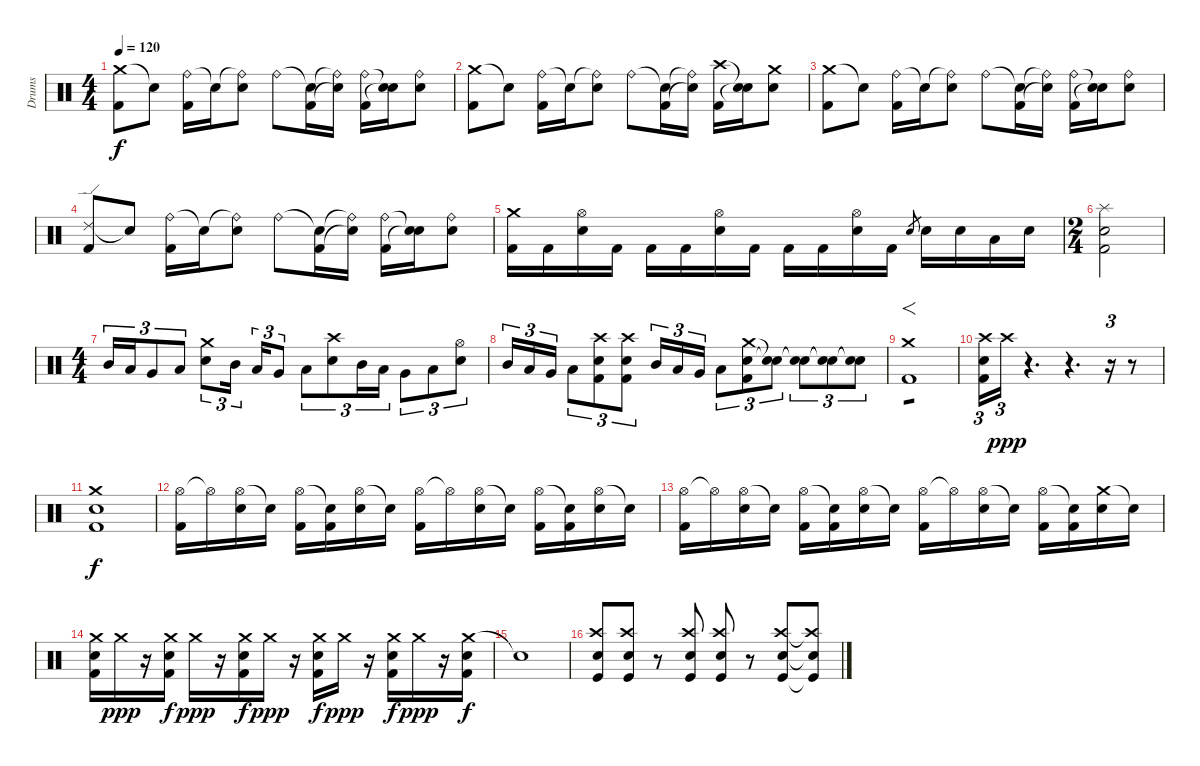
\track ("Drums" "Drums") {instrument percussion}
\staff {score}
\articulation defaults
\ts (4 4)
\tempo 120
\clef neutral
\ks c
("Crash medium (hit)" "Kick (hit) 2").8{dy f} "Snare (hit)"{t}.8 ("Ride (bell)" "Kick (hit) 2").16 "Snare (hit)"{t}.16 ("Ride (bell)"{t} "Snare (hit) 2").8 "Ride (bell)".8 ("Snare (hit)"{t} "Kick (hit) 2").16 ("Ride (bell)"{t} "Snare (hit)"{t}).16 ("Ride (bell)" "Kick (hit) 2").16 ("Snare (hit)"{t} "Snare (hit)"{t}).16 ("Ride (bell)" "Snare (hit) 2").8 |
("Crash medium (hit)" "Kick (hit) 2").8 "Snare (hit)"{t}.8 ("Ride (bell)" "Kick (hit) 2").16 "Snare (hit)"{t}.16 ("Ride (bell)"{t} "Snare (hit) 2").8 "Ride (bell)".8 ("Snare (hit)"{t} "Kick (hit) 2").16 ("Ride (bell)"{t} "Snare (hit)"{t}).16 ("Crash high (hit)" "Kick (hit) 2").16 ("Snare (hit)"{t} "Snare (hit)"{t}).16 ("Crash medium (hit)" "Snare (hit) 2").8 |
("Crash medium (hit)" "Kick (hit) 2").8 "Snare (hit)"{t}.8 ("Ride (bell)" "Kick (hit) 2").16 "Snare (hit)"{t}.16 ("Ride (bell)"{t} "Snare (hit) 2").8 "Ride (bell)".8 ("Snare (hit)"{t} "Kick (hit) 2").16 ("Ride (bell)"{t} "Snare (hit)"{t}).16 ("Ride (bell)" "Kick (hit) 2").16 ("Snare (hit)"{t} "Snare (hit)"{t}).16 ("Ride (bell)" "Snare (hit) 2").8 |
("Ride (edge) 2" "Kick (hit) 2").8 "Snare (hit)"{t}.8 ("Ride (bell)" "Kick (hit) 2").16 "Snare (hit)"{t}.16 ("Ride (bell)"{t} "Snare (hit) 2").8 "Ride (bell)".8 ("Snare (hit)"{t} "Kick (hit) 2").16 ("Ride (bell)"{t} "Snare (hit)"{t}).16 ("Ride (bell)" "Kick (hit) 2").16 ("Snare (hit)"{t} "Snare (hit)"{t}).16 ("Ride (bell)" "Snare (hit) 2").8 |
("Crash medium (hit)" "Kick (hit) 2").16 "Kick (hit) 2".16 ("Hi-Hat (open)" "Snare (hit) 2").16 "Kick (hit) 2".16 "Kick (hit) 2".16 "Kick (hit) 2".16 ("Hi-Hat (open)" "Snare (hit) 2").16 "Kick (hit) 2".16 "Kick (hit) 2".16 "Kick (hit) 2".16 ("Hi-Hat (open)" "Snare (hit) 2").16 "Kick (hit) 2".16 "Electric Snare (hit)".8{gr} "Electric Snare (hit)".16 "Electric Snare (hit)".16 "Low Tom (hit)".16 "Electric Snare (hit)".16 |
\ts (2 4)
("Splash (hit)" "Electric Snare (hit)" "Kick (hit) 2").2 |
\ts (4 4)
"Mid Tom (hit)".16{tu (3 2)} "Low Tom (hit)".16{tu (3 2)} "Very Low Tom (hit)".8{tu (3 2)} "Low Floor Tom (hit)".8{tu (3 2)} ("Crash medium (hit)" "Electric Snare (hit)").8{tu (3 2)} "Mid Tom (hit)".16{tu (3 2) beam splitsecondary} "Low Tom (hit)".16{tu (3 2)} "Very Low Tom (hit)".8{tu (3 2)} "Low Floor Tom (hit)".8{tu (3 2)} ("Crash high (hit)" "Electric Snare (hit)").8{tu (3 2)} "Mid Tom (hit)".16{tu (3 2)} "Low Tom (hit)".16{tu (3 2)} "Very Low Tom (hit)".8{tu (3 2)} "Low Floor Tom (hit)".8{tu (3 2)} ("Hi-Hat (open)" "Electric Snare (hit)").8{tu (3 2)} |
"Mid Tom (hit)".16{tu (3 2)} "Low Tom (hit)".16{tu (3 2)} "Very Low Tom (hit)".16{tu (3 2)} "Low Floor Tom (hit)".8{tu (3 2)} ("Crash high (hit)" "Snare (hit) 2" "Kick (hit) 2").8{tu (3 2)} ("Crash high (hit)" "Electric Snare (hit)" "Kick (hit) 2").8{tu (3 2)} "Mid Tom (hit)".16{tu (3 2)} "Low Tom (hit)".16{tu (3 2)} "Very Low Tom (hit)".16{tu (3 2)} "Low Floor Tom (hit)".8{tu (3 2)} ("Crash medium (hit)" "Snare (hit) 2" "Kick (hit) 2").8{tu (3 2)} ("Snare (hit)"{t} "Snare (hit)"{t}).8{tu (3 2)} ("Snare (hit)"{t} "Snare (hit)"{t}).8{tu (3 2)} ("Snare (hit)"{t} "Snare (hit)"{t}).8{tu (3 2)} ("Snare (hit)"{t} "Snare (hit)"{t}).8{tu (3 2)} |
("Crash medium (hit)" "Kick (hit) 2").1{f tp 1} |
("Crash high (hit)" "Snare (hit) 2" "Kick (hit) 2").16{tu (3 2)} "Crash high (hit)".16{tu (3 2) dy ppp} r.4{d} r.4{d} r.16{tu (3 2)} r.8 |
("Crash medium (hit)" "Electric Snare (hit)" "Kick (hit) 2").1{dy f} |
("Hi-Hat (open)" "Kick (hit) 2").16 "Hi-Hat (open)"{t}.16 ("Hi-Hat (open)" "Electric Snare (hit)").16 "Snare (hit)"{t}.16 ("Hi-Hat (open)" "Kick (hit) 2").16 ("Snare (hit)"{t} "Kick (hit) 2").16 ("Hi-Hat (open)" "Electric Snare (hit)").16 "Snare (hit)"{t}.16 ("Hi-Hat (open)" "Kick (hit) 2").16 "Hi-Hat (open)"{t}.16 ("Hi-Hat (open)" "Electric Snare (hit)").16 "Snare (hit)"{t}.16 ("Hi-Hat (open)" "Kick (hit) 2").16 ("Snare (hit)"{t} "Kick (hit) 2").16 ("Hi-Hat (open)" "Electric Snare (hit)").16 "Snare (hit)"{t}.16 |
("Hi-Hat (open)" "Kick (hit) 2").16 "Hi-Hat (open)"{t}.16 ("Hi-Hat (open)" "Electric Snare (hit)").16 "Snare (hit)"{t}.16 ("Hi-Hat (open)" "Kick (hit) 2").16 ("Snare (hit)"{t} "Kick (hit) 2").16 ("Hi-Hat (open)" "Electric Snare (hit)").16 "Snare (hit)"{t}.16 ("Hi-Hat (open)" "Kick (hit) 2").16 "Hi-Hat (open)"{t}.16 ("Hi-Hat (open)" "Electric Snare (hit)").16 "Snare (hit)"{t}.16 ("Hi-Hat (open)" "Kick (hit) 2").16 ("Snare (hit)"{t} "Kick (hit) 2").16 ("Crash medium (hit)" "Electric Snare (hit)").16 "Snare (hit)"{t}.16 |
("Crash medium (hit)" "Electric Snare (hit)" "Kick (hit) 2").16 "Crash medium (hit)".16{dy ppp} r.16 ("Crash medium (hit)" "Electric Snare (hit)" "Kick (hit) 2").16{dy f} "Crash medium (hit)".16{dy ppp} r.16 ("Crash medium (hit)" "Electric Snare (hit)" "Kick (hit) 2").16{dy f} "Crash medium (hit)".16{dy ppp} r.16 ("Crash medium (hit)" "Electric Snare (hit)" "Kick (hit) 2").16{dy f} "Crash medium (hit)".16{dy ppp} r.16 ("Crash medium (hit)" "Electric Snare (hit)" "Kick (hit) 2").16{dy f} "Crash medium (hit)".16{dy ppp} r.16 ("Crash medium (hit)" "Electric Snare (hit)" "Kick (hit) 2").16{dy f} |
"Snare (hit)"{t}.1 |
("Crash high (hit)" "Snare (hit) 2" "Kick (hit)").8 ("Crash high (hit)" "Snare (hit) 2" "Kick (hit)").8 r.8 ("Crash high (hit)" "Snare (hit) 2" "Kick (hit)").8 ("Crash high (hit)" "Snare (hit) 2" "Kick (hit)").8 r.8 ("Crash high (hit)" "Snare (hit) 2" "Kick (hit)").8 ("Crash high (hit)"{t} "Snare (hit) 2"{t} "Kick (hit)"{t}).8
